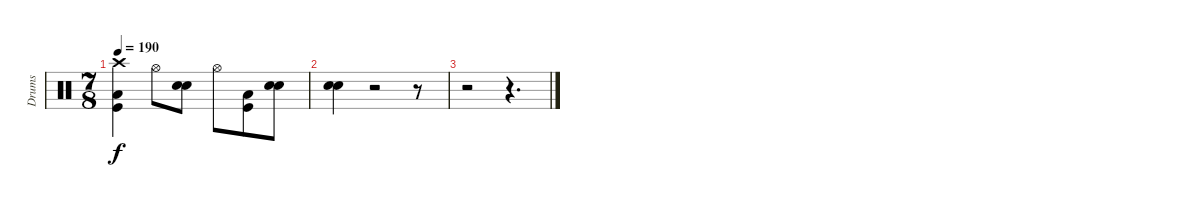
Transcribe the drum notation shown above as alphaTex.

\track ("Drums" "Drums") {instrument percussion}
\staff {score}
\articulation defaults
\ts (7 8)
\tempo 190
\clef neutral
\ks c
("Crash high (hit)" "Kick (hit)" "Low Tom (hit)").4{dy f} "Hi-Hat (open)".8 ("Snare (hit) 2" "Electric Snare (hit)").8 "Hi-Hat (open)".8 ("Kick (hit)" "Low Tom (hit)").8 ("Snare (hit) 2" "Electric Snare (hit)").8 |
("Snare (hit) 2" "Electric Snare (hit)").4 r.2 r.8 |
r.2 r.4{d}
